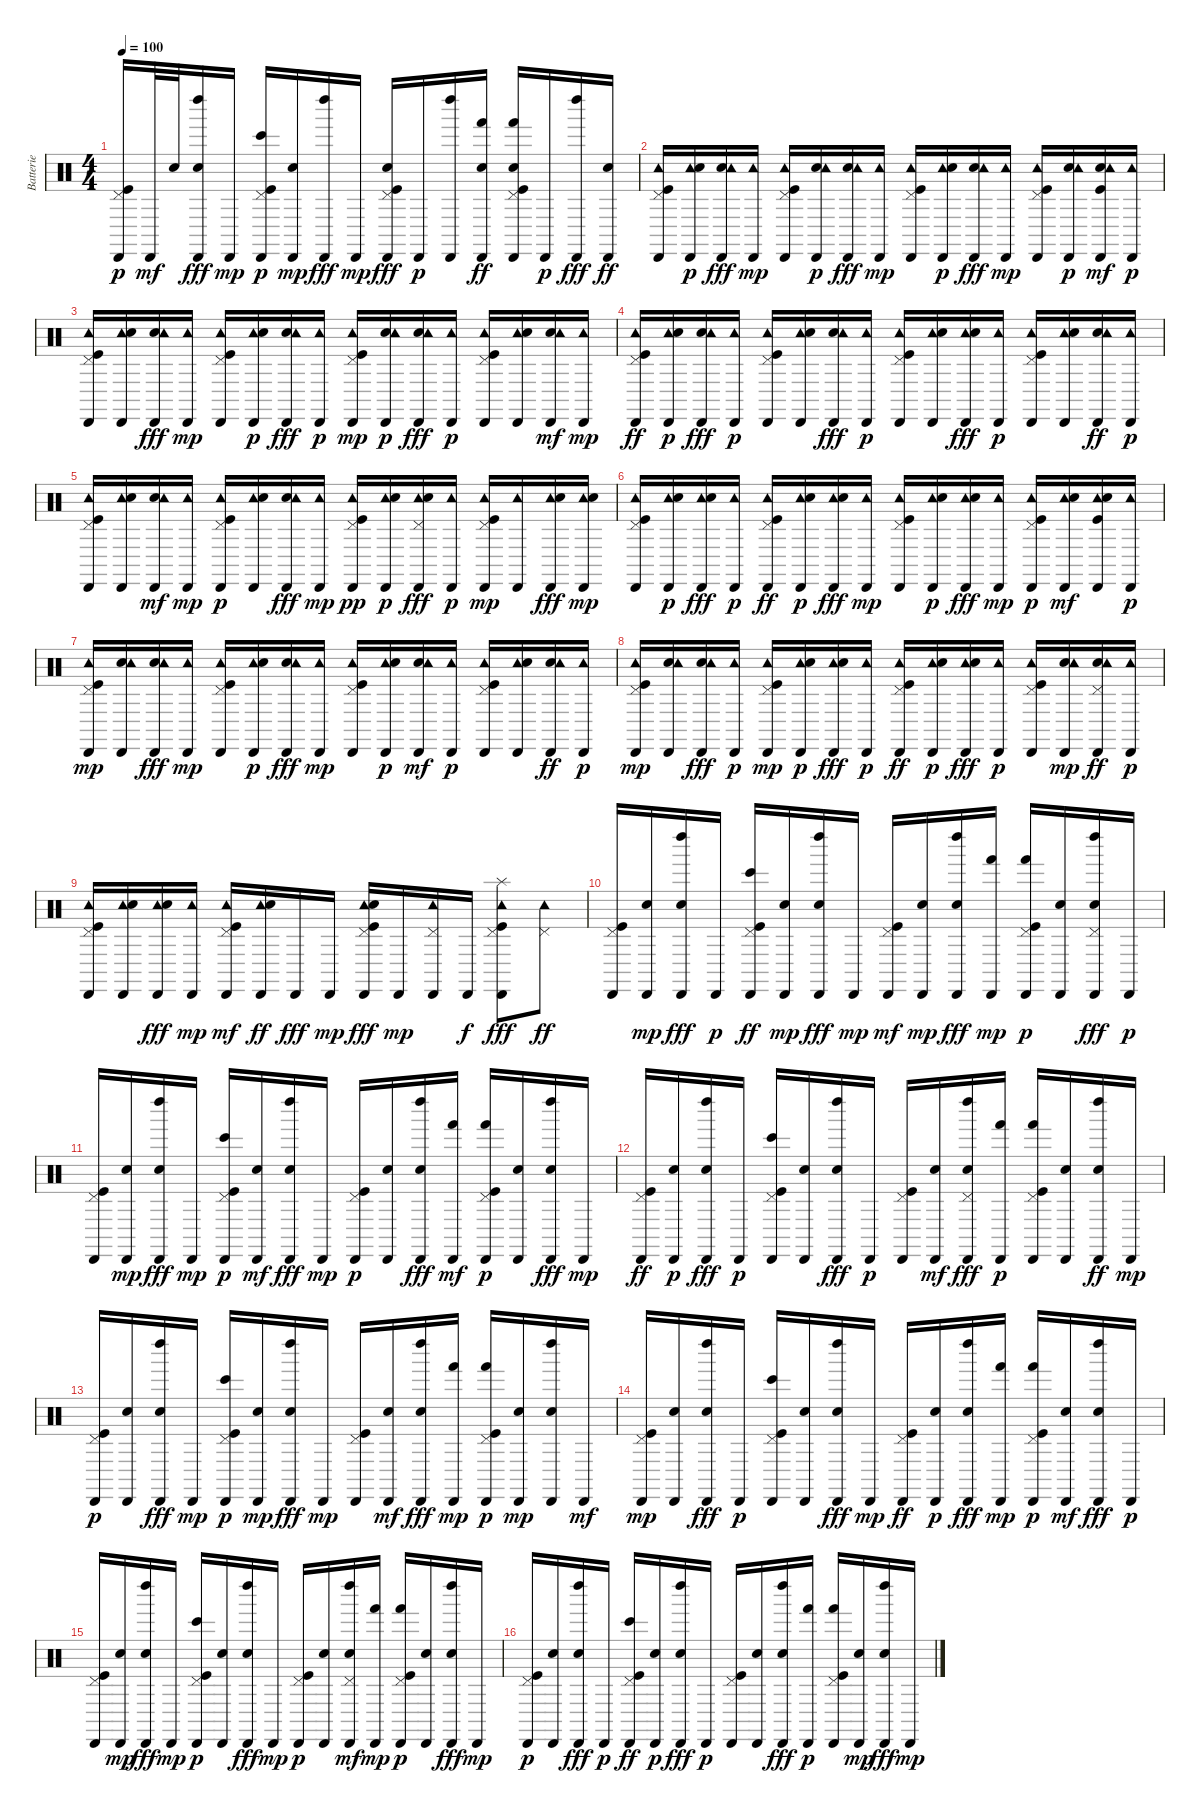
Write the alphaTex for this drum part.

\track ("Batterie" "Batterie") {instrument percussion}
\staff {score}
\articulation defaults
\ts (4 4)
\tempo 100
\clef neutral
\ks c
("Pedal Hi-Hat (hit)" "Kick (hit)" "Cabasa (hit)").16{dy p} "Cabasa (hit)".32{dy mf} "Electric Snare (hit)".32 ("Cabasa (hit)" "Left Maraca (hit)" "Electric Snare (hit)").16{dy fff} "Cabasa (hit)".16{dy mp} ("Kick (hit)" "Pedal Hi-Hat (hit)" "Bongo High (hit)" "Cabasa (hit)").16{dy p} ("Hand Clap (hit)" "Cabasa (hit)").16{dy mp} ("Left Maraca (hit)" "Cabasa (hit)").16{dy fff} "Cabasa (hit)".16{dy mp} ("Kick (hit)" "Pedal Hi-Hat (hit)" "Cabasa (hit)" "Hand Clap (hit)").16{dy fff} "Cabasa (hit)".16{dy p} ("Left Maraca (hit)" "Cabasa (hit)").16 ("Cabasa (hit)" "Hand (hit)" "Hand Clap (hit)").16{dy ff} ("Hand Clap (hit)" "Kick (hit)" "Hand (hit)" "Pedal Hi-Hat (hit)" "Cabasa (hit)").16 "Cabasa (hit)".16{dy p} ("Cabasa (hit)" "Left Maraca (hit)").16{dy fff} ("Cabasa (hit)" "Hand Clap (hit)").16{dy ff} |
("Kick (hit)" "Cabasa (hit)" "Tambourine (hit)" "Pedal Hi-Hat (hit)").16 ("Tambourine (hit)" "Cabasa (hit)" "Electric Snare (hit)").16{dy p} ("Cabasa (hit)" "Electric Snare (hit)" "Tambourine (hit)").16{dy fff} ("Cabasa (hit)" "Tambourine (hit)").16{dy mp} ("Kick (hit)" "Cabasa (hit)" "Pedal Hi-Hat (hit)" "Tambourine (hit)").16 ("Cabasa (hit)" "Electric Snare (hit)" "Tambourine (hit)").16{dy p} ("Cabasa (hit)" "Electric Snare (hit)" "Tambourine (hit)").16{dy fff} ("Cabasa (hit)" "Tambourine (hit)").16{dy mp} ("Kick (hit)" "Cabasa (hit)" "Tambourine (hit)" "Pedal Hi-Hat (hit)").16 ("Cabasa (hit)" "Tambourine (hit)" "Electric Snare (hit)").16{dy p} ("Cabasa (hit)" "Electric Snare (hit)" "Tambourine (hit)").16{dy fff} ("Tambourine (hit)" "Cabasa (hit)").16{dy mp} ("Kick (hit)" "Pedal Hi-Hat (hit)" "Cabasa (hit)" "Tambourine (hit)").16 ("Electric Snare (hit)" "Cabasa (hit)" "Tambourine (hit)").16{dy p} ("Kick (hit)" "Cabasa (hit)" "Electric Snare (hit)" "Tambourine (hit)").16{dy mf} ("Cabasa (hit)" "Tambourine (hit)").16{dy p} |
("Cabasa (hit)" "Tambourine (hit)" "Kick (hit)" "Pedal Hi-Hat (hit)").16 ("Cabasa (hit)" "Tambourine (hit)" "Electric Snare (hit)").16 ("Electric Snare (hit)" "Tambourine (hit)" "Cabasa (hit)").16{dy fff} ("Cabasa (hit)" "Tambourine (hit)").16{dy mp} ("Cabasa (hit)" "Pedal Hi-Hat (hit)" "Tambourine (hit)" "Kick (hit)").16 ("Cabasa (hit)" "Tambourine (hit)" "Electric Snare (hit)").16{dy p} ("Cabasa (hit)" "Electric Snare (hit)" "Tambourine (hit)").16{dy fff} ("Cabasa (hit)" "Tambourine (hit)").16{dy p} ("Cabasa (hit)" "Kick (hit)" "Pedal Hi-Hat (hit)" "Tambourine (hit)").16{dy mp} ("Cabasa (hit)" "Electric Snare (hit)" "Tambourine (hit)").16{dy p} ("Cabasa (hit)" "Electric Snare (hit)" "Tambourine (hit)").16{dy fff} ("Cabasa (hit)" "Tambourine (hit)").16{dy p} ("Kick (hit)" "Tambourine (hit)" "Pedal Hi-Hat (hit)" "Cabasa (hit)").16 ("Cabasa (hit)" "Tambourine (hit)" "Electric Snare (hit)").16 ("Cabasa (hit)" "Electric Snare (hit)" "Tambourine (hit)").16{dy mf} ("Cabasa (hit)" "Tambourine (hit)").16{dy mp} |
("Kick (hit)" "Tambourine (hit)" "Cabasa (hit)" "Pedal Hi-Hat (hit)").16{dy ff} ("Cabasa (hit)" "Tambourine (hit)" "Electric Snare (hit)").16{dy p} ("Cabasa (hit)" "Electric Snare (hit)" "Tambourine (hit)").16{dy fff} ("Cabasa (hit)" "Tambourine (hit)").16{dy p} ("Kick (hit)" "Tambourine (hit)" "Cabasa (hit)" "Pedal Hi-Hat (hit)").16 ("Tambourine (hit)" "Cabasa (hit)" "Electric Snare (hit)").16 ("Electric Snare (hit)" "Cabasa (hit)" "Tambourine (hit)").16{dy fff} ("Tambourine (hit)" "Cabasa (hit)").16{dy p} ("Kick (hit)" "Tambourine (hit)" "Cabasa (hit)" "Pedal Hi-Hat (hit)").16 ("Cabasa (hit)" "Tambourine (hit)" "Electric Snare (hit)").16 ("Tambourine (hit)" "Electric Snare (hit)" "Cabasa (hit)").16{dy fff} ("Tambourine (hit)" "Cabasa (hit)").16{dy p} ("Kick (hit)" "Tambourine (hit)" "Pedal Hi-Hat (hit)" "Cabasa (hit)").16 ("Tambourine (hit)" "Cabasa (hit)" "Electric Snare (hit)").16 ("Electric Snare (hit)" "Cabasa (hit)" "Tambourine (hit)").16{dy ff} ("Cabasa (hit)" "Tambourine (hit)").16{dy p} |
("Kick (hit)" "Tambourine (hit)" "Pedal Hi-Hat (hit)" "Cabasa (hit)").16 ("Tambourine (hit)" "Cabasa (hit)" "Electric Snare (hit)").16 ("Electric Snare (hit)" "Cabasa (hit)" "Tambourine (hit)").16{dy mf} ("Tambourine (hit)" "Cabasa (hit)").16{dy mp} ("Kick (hit)" "Tambourine (hit)" "Cabasa (hit)" "Pedal Hi-Hat (hit)").16{dy p} ("Tambourine (hit)" "Cabasa (hit)" "Electric Snare (hit)").16 ("Electric Snare (hit)" "Cabasa (hit)" "Tambourine (hit)").16{dy fff} ("Tambourine (hit)" "Cabasa (hit)").16{dy mp} ("Kick (hit)" "Pedal Hi-Hat (hit)" "Cabasa (hit)" "Tambourine (hit)").16{dy pp} ("Cabasa (hit)" "Tambourine (hit)" "Electric Snare (hit)").16{dy p} ("Cabasa (hit)" "Tambourine (hit)" "Pedal Hi-Hat (hit)" "Electric Snare (hit)").16{dy fff} ("Cabasa (hit)" "Tambourine (hit)").16{dy p} ("Kick (hit)" "Cabasa (hit)" "Pedal Hi-Hat (hit)" "Tambourine (hit)").16{dy mp} ("Cabasa (hit)" "Tambourine (hit)").16 ("Tambourine (hit)" "Cabasa (hit)" "Hand Clap (hit)").16{dy fff} ("Cabasa (hit)" "Tambourine (hit)" "Hand Clap (hit)").16{dy mp} |
("Kick (hit)" "Tambourine (hit)" "Cabasa (hit)" "Pedal Hi-Hat (hit)").16 ("Tambourine (hit)" "Cabasa (hit)" "Electric Snare (hit)").16{dy p} ("Tambourine (hit)" "Cabasa (hit)" "Electric Snare (hit)").16{dy fff} ("Tambourine (hit)" "Cabasa (hit)").16{dy p} ("Kick (hit)" "Cabasa (hit)" "Tambourine (hit)" "Pedal Hi-Hat (hit)").16{dy ff} ("Cabasa (hit)" "Tambourine (hit)" "Electric Snare (hit)").16{dy p} ("Tambourine (hit)" "Cabasa (hit)" "Electric Snare (hit)").16{dy fff} ("Tambourine (hit)" "Cabasa (hit)").16{dy mp} ("Cabasa (hit)" "Kick (hit)" "Pedal Hi-Hat (hit)" "Tambourine (hit)").16 ("Tambourine (hit)" "Cabasa (hit)" "Electric Snare (hit)").16{dy p} ("Tambourine (hit)" "Cabasa (hit)" "Electric Snare (hit)").16{dy fff} ("Tambourine (hit)" "Cabasa (hit)").16{dy mp} ("Kick (hit)" "Tambourine (hit)" "Pedal Hi-Hat (hit)" "Cabasa (hit)").16{dy p} ("Tambourine (hit)" "Electric Snare (hit)" "Cabasa (hit)").16{dy mf} ("Kick (hit)" "Tambourine (hit)" "Cabasa (hit)" "Electric Snare (hit)").16 ("Cabasa (hit)" "Tambourine (hit)").16{dy p} |
("Cabasa (hit)" "Kick (hit)" "Pedal Hi-Hat (hit)" "Tambourine (hit)").16{dy mp} ("Cabasa (hit)" "Electric Snare (hit)" "Tambourine (hit)").16 ("Electric Snare (hit)" "Cabasa (hit)" "Tambourine (hit)").16{dy fff} ("Cabasa (hit)" "Tambourine (hit)").16{dy mp} ("Pedal Hi-Hat (hit)" "Cabasa (hit)" "Kick (hit)" "Tambourine (hit)").16 ("Cabasa (hit)" "Tambourine (hit)" "Electric Snare (hit)").16{dy p} ("Electric Snare (hit)" "Cabasa (hit)" "Tambourine (hit)").16{dy fff} ("Tambourine (hit)" "Cabasa (hit)").16{dy mp} ("Kick (hit)" "Pedal Hi-Hat (hit)" "Cabasa (hit)" "Tambourine (hit)").16 ("Cabasa (hit)" "Tambourine (hit)" "Electric Snare (hit)").16{dy p} ("Cabasa (hit)" "Electric Snare (hit)" "Tambourine (hit)").16{dy mf} ("Cabasa (hit)" "Tambourine (hit)").16{dy p} ("Kick (hit)" "Tambourine (hit)" "Pedal Hi-Hat (hit)" "Cabasa (hit)").16 ("Tambourine (hit)" "Cabasa (hit)" "Electric Snare (hit)").16 ("Electric Snare (hit)" "Tambourine (hit)" "Cabasa (hit)").16{dy ff} ("Cabasa (hit)" "Tambourine (hit)").16{dy p} |
("Kick (hit)" "Cabasa (hit)" "Pedal Hi-Hat (hit)" "Tambourine (hit)").16{dy mp} ("Electric Snare (hit)" "Cabasa (hit)" "Tambourine (hit)").16 ("Electric Snare (hit)" "Tambourine (hit)" "Cabasa (hit)").16{dy fff} ("Tambourine (hit)" "Cabasa (hit)").16{dy p} ("Kick (hit)" "Cabasa (hit)" "Pedal Hi-Hat (hit)" "Tambourine (hit)").16{dy mp} ("Tambourine (hit)" "Cabasa (hit)" "Electric Snare (hit)").16{dy p} ("Cabasa (hit)" "Tambourine (hit)" "Electric Snare (hit)").16{dy fff} ("Tambourine (hit)" "Cabasa (hit)").16{dy p} ("Pedal Hi-Hat (hit)" "Tambourine (hit)" "Cabasa (hit)" "Kick (hit)").16{dy ff} ("Cabasa (hit)" "Tambourine (hit)" "Electric Snare (hit)").16{dy p} ("Tambourine (hit)" "Electric Snare (hit)" "Cabasa (hit)").16{dy fff} ("Tambourine (hit)" "Cabasa (hit)").16{dy p} ("Pedal Hi-Hat (hit)" "Kick (hit)" "Tambourine (hit)" "Cabasa (hit)").16 ("Cabasa (hit)" "Electric Snare (hit)" "Tambourine (hit)").16{dy mp} ("Electric Snare (hit)" "Tambourine (hit)" "Cabasa (hit)" "Pedal Hi-Hat (hit)").16{dy ff} ("Cabasa (hit)" "Tambourine (hit)").16{dy p} |
("Kick (hit)" "Pedal Hi-Hat (hit)" "Tambourine (hit)" "Cabasa (hit)").16 ("Tambourine (hit)" "Cabasa (hit)" "Electric Snare (hit)").16 ("Tambourine (hit)" "Cabasa (hit)" "Electric Snare (hit)").16{dy fff} ("Tambourine (hit)" "Cabasa (hit)").16{dy mp} ("Kick (hit)" "Tambourine (hit)" "Cabasa (hit)" "Pedal Hi-Hat (hit)").16{dy mf} ("Tambourine (hit)" "Cabasa (hit)" "Hand Clap (hit)").16{dy ff} "Cabasa (hit)".16{dy fff} "Cabasa (hit)".16{dy mp} ("Kick (hit)" "Tambourine (hit)" "Cabasa (hit)" "Pedal Hi-Hat (hit)" "Hand Clap (hit)").16{dy fff} "Cabasa (hit)".16{dy mp} ("Tambourine (hit)" "Cabasa (hit)" "Pedal Hi-Hat (hit)").16 "Cabasa (hit)".16{dy f} ("Kick (hit)" "Tambourine (hit)" "Cabasa (hit)" "Pedal Hi-Hat (hit)" "Splash (hit)").8{dy fff} ("Tambourine (hit)" "Pedal Hi-Hat (hit)").8{dy ff} |
("Kick (hit)" "Cabasa (hit)" "Pedal Hi-Hat (hit)").16 ("Cabasa (hit)" "Electric Snare (hit)").16{dy mp} ("Cabasa (hit)" "Electric Snare (hit)" "Left Maraca (hit)").16{dy fff} "Cabasa (hit)".16{dy p} ("Cabasa (hit)" "Pedal Hi-Hat (hit)" "Bongo High (hit)" "Kick (hit)").16{dy ff} ("Cabasa (hit)" "Electric Snare (hit)").16{dy mp} ("Cabasa (hit)" "Left Maraca (hit)" "Electric Snare (hit)").16{dy fff} "Cabasa (hit)".16{dy mp} ("Cabasa (hit)" "Pedal Hi-Hat (hit)" "Kick (hit)").16{dy mf} ("Cabasa (hit)" "Electric Snare (hit)").16{dy mp} ("Electric Snare (hit)" "Cabasa (hit)" "Left Maraca (hit)").16{dy fff} ("Hand (hit)" "Cabasa (hit)").16{dy mp} ("Hand (hit)" "Kick (hit)" "Pedal Hi-Hat (hit)" "Cabasa (hit)").16{dy p} ("Cabasa (hit)" "Electric Snare (hit)").16 ("Pedal Hi-Hat (hit)" "Cabasa (hit)" "Left Maraca (hit)" "Electric Snare (hit)").16{dy fff} "Cabasa (hit)".16{dy p} |
("Kick (hit)" "Cabasa (hit)" "Pedal Hi-Hat (hit)").16 ("Cabasa (hit)" "Electric Snare (hit)").16{dy mp} ("Cabasa (hit)" "Electric Snare (hit)" "Left Maraca (hit)").16{dy fff} "Cabasa (hit)".16{dy mp} ("Bongo High (hit)" "Cabasa (hit)" "Pedal Hi-Hat (hit)" "Kick (hit)").16{dy p} ("Electric Snare (hit)" "Cabasa (hit)").16{dy mf} ("Cabasa (hit)" "Electric Snare (hit)" "Left Maraca (hit)").16{dy fff} "Cabasa (hit)".16{dy mp} ("Cabasa (hit)" "Kick (hit)" "Pedal Hi-Hat (hit)").16{dy p} ("Cabasa (hit)" "Electric Snare (hit)").16 ("Cabasa (hit)" "Electric Snare (hit)" "Left Maraca (hit)").16{dy fff} ("Cabasa (hit)" "Hand (hit)").16{dy mf} ("Pedal Hi-Hat (hit)" "Kick (hit)" "Hand (hit)" "Cabasa (hit)").16{dy p} ("Cabasa (hit)" "Electric Snare (hit)").16 ("Cabasa (hit)" "Left Maraca (hit)" "Electric Snare (hit)").16{dy fff} "Cabasa (hit)".16{dy mp} |
("Cabasa (hit)" "Pedal Hi-Hat (hit)" "Kick (hit)").16{dy ff} ("Cabasa (hit)" "Electric Snare (hit)").16{dy p} ("Cabasa (hit)" "Left Maraca (hit)" "Electric Snare (hit)").16{dy fff} "Cabasa (hit)".16{dy p} ("Pedal Hi-Hat (hit)" "Bongo High (hit)" "Kick (hit)" "Cabasa (hit)").16 ("Cabasa (hit)" "Electric Snare (hit)").16 ("Cabasa (hit)" "Left Maraca (hit)" "Electric Snare (hit)").16{dy fff} "Cabasa (hit)".16{dy p} ("Kick (hit)" "Pedal Hi-Hat (hit)" "Cabasa (hit)").16 ("Electric Snare (hit)" "Cabasa (hit)").16{dy mf} ("Pedal Hi-Hat (hit)" "Left Maraca (hit)" "Electric Snare (hit)" "Cabasa (hit)").16{dy fff} ("Hand (hit)" "Cabasa (hit)").16{dy p} ("Kick (hit)" "Pedal Hi-Hat (hit)" "Hand (hit)" "Cabasa (hit)").16 ("Cabasa (hit)" "Electric Snare (hit)").16 ("Left Maraca (hit)" "Cabasa (hit)" "Electric Snare (hit)").16{dy ff} "Cabasa (hit)".16{dy mp} |
("Pedal Hi-Hat (hit)" "Kick (hit)" "Cabasa (hit)").16{dy p} ("Cabasa (hit)" "Electric Snare (hit)").16 ("Left Maraca (hit)" "Cabasa (hit)" "Electric Snare (hit)").16{dy fff} "Cabasa (hit)".16{dy mp} ("Kick (hit)" "Bongo High (hit)" "Cabasa (hit)" "Pedal Hi-Hat (hit)").16{dy p} ("Electric Snare (hit)" "Cabasa (hit)").16{dy mp} ("Electric Snare (hit)" "Left Maraca (hit)" "Cabasa (hit)").16{dy fff} "Cabasa (hit)".16{dy mp} ("Kick (hit)" "Pedal Hi-Hat (hit)" "Cabasa (hit)").16 ("Electric Snare (hit)" "Cabasa (hit)").16{dy mf} ("Electric Snare (hit)" "Left Maraca (hit)" "Cabasa (hit)").16{dy fff} ("Hand (hit)" "Cabasa (hit)").16{dy mp} ("Kick (hit)" "Hand (hit)" "Pedal Hi-Hat (hit)" "Cabasa (hit)").16{dy p} ("Cabasa (hit)" "Electric Snare (hit)").16{dy mp} ("Cabasa (hit)" "Left Maraca (hit)" "Electric Snare (hit)").16 "Cabasa (hit)".16{dy mf} |
("Pedal Hi-Hat (hit)" "Kick (hit)" "Cabasa (hit)").16{dy mp} ("Cabasa (hit)" "Electric Snare (hit)").16 ("Cabasa (hit)" "Left Maraca (hit)" "Electric Snare (hit)").16{dy fff} "Cabasa (hit)".16{dy p} ("Pedal Hi-Hat (hit)" "Kick (hit)" "Cabasa (hit)" "Bongo High (hit)").16 ("Cabasa (hit)" "Electric Snare (hit)").16 ("Cabasa (hit)" "Electric Snare (hit)" "Left Maraca (hit)").16{dy fff} "Cabasa (hit)".16{dy mp} ("Kick (hit)" "Cabasa (hit)" "Pedal Hi-Hat (hit)").16{dy ff} ("Cabasa (hit)" "Electric Snare (hit)").16{dy p} ("Cabasa (hit)" "Left Maraca (hit)" "Electric Snare (hit)").16{dy fff} ("Hand (hit)" "Cabasa (hit)").16{dy mp} ("Kick (hit)" "Pedal Hi-Hat (hit)" "Hand (hit)" "Cabasa (hit)").16{dy p} ("Electric Snare (hit)" "Cabasa (hit)").16{dy mf} ("Electric Snare (hit)" "Left Maraca (hit)" "Cabasa (hit)").16{dy fff} "Cabasa (hit)".16{dy p} |
("Pedal Hi-Hat (hit)" "Kick (hit)" "Cabasa (hit)").16 ("Electric Snare (hit)" "Cabasa (hit)").16{dy mp} ("Electric Snare (hit)" "Left Maraca (hit)" "Cabasa (hit)").16{dy fff} "Cabasa (hit)".16{dy mp} ("Cabasa (hit)" "Kick (hit)" "Bongo High (hit)" "Pedal Hi-Hat (hit)").16{dy p} ("Cabasa (hit)" "Electric Snare (hit)").16 ("Cabasa (hit)" "Electric Snare (hit)" "Left Maraca (hit)").16{dy fff} "Cabasa (hit)".16{dy mp} ("Cabasa (hit)" "Pedal Hi-Hat (hit)" "Kick (hit)").16{dy p} ("Cabasa (hit)" "Electric Snare (hit)").16 ("Cabasa (hit)" "Pedal Hi-Hat (hit)" "Left Maraca (hit)" "Electric Snare (hit)").16{dy mf} ("Hand (hit)" "Cabasa (hit)").16{dy mp} ("Hand (hit)" "Kick (hit)" "Pedal Hi-Hat (hit)" "Cabasa (hit)").16{dy p} ("Cabasa (hit)" "Electric Snare (hit)").16 ("Cabasa (hit)" "Left Maraca (hit)" "Electric Snare (hit)").16{dy fff} "Cabasa (hit)".16{dy mp} |
("Pedal Hi-Hat (hit)" "Kick (hit)" "Cabasa (hit)").16{dy p} ("Cabasa (hit)" "Electric Snare (hit)").16 ("Cabasa (hit)" "Electric Snare (hit)" "Left Maraca (hit)").16{dy fff} "Cabasa (hit)".16{dy p} ("Pedal Hi-Hat (hit)" "Cabasa (hit)" "Bongo High (hit)" "Kick (hit)").16{dy ff} ("Cabasa (hit)" "Electric Snare (hit)").16{dy p} ("Cabasa (hit)" "Electric Snare (hit)" "Left Maraca (hit)").16{dy fff} "Cabasa (hit)".16{dy p} ("Pedal Hi-Hat (hit)" "Kick (hit)" "Cabasa (hit)").16 ("Cabasa (hit)" "Electric Snare (hit)").16 ("Left Maraca (hit)" "Cabasa (hit)" "Electric Snare (hit)").16{dy fff} ("Hand (hit)" "Cabasa (hit)").16{dy p} ("Hand (hit)" "Pedal Hi-Hat (hit)" "Kick (hit)" "Cabasa (hit)").16 ("Cabasa (hit)" "Electric Snare (hit)").16{dy mp} ("Cabasa (hit)" "Left Maraca (hit)" "Electric Snare (hit)").16{dy fff} "Cabasa (hit)".16{dy mp}
